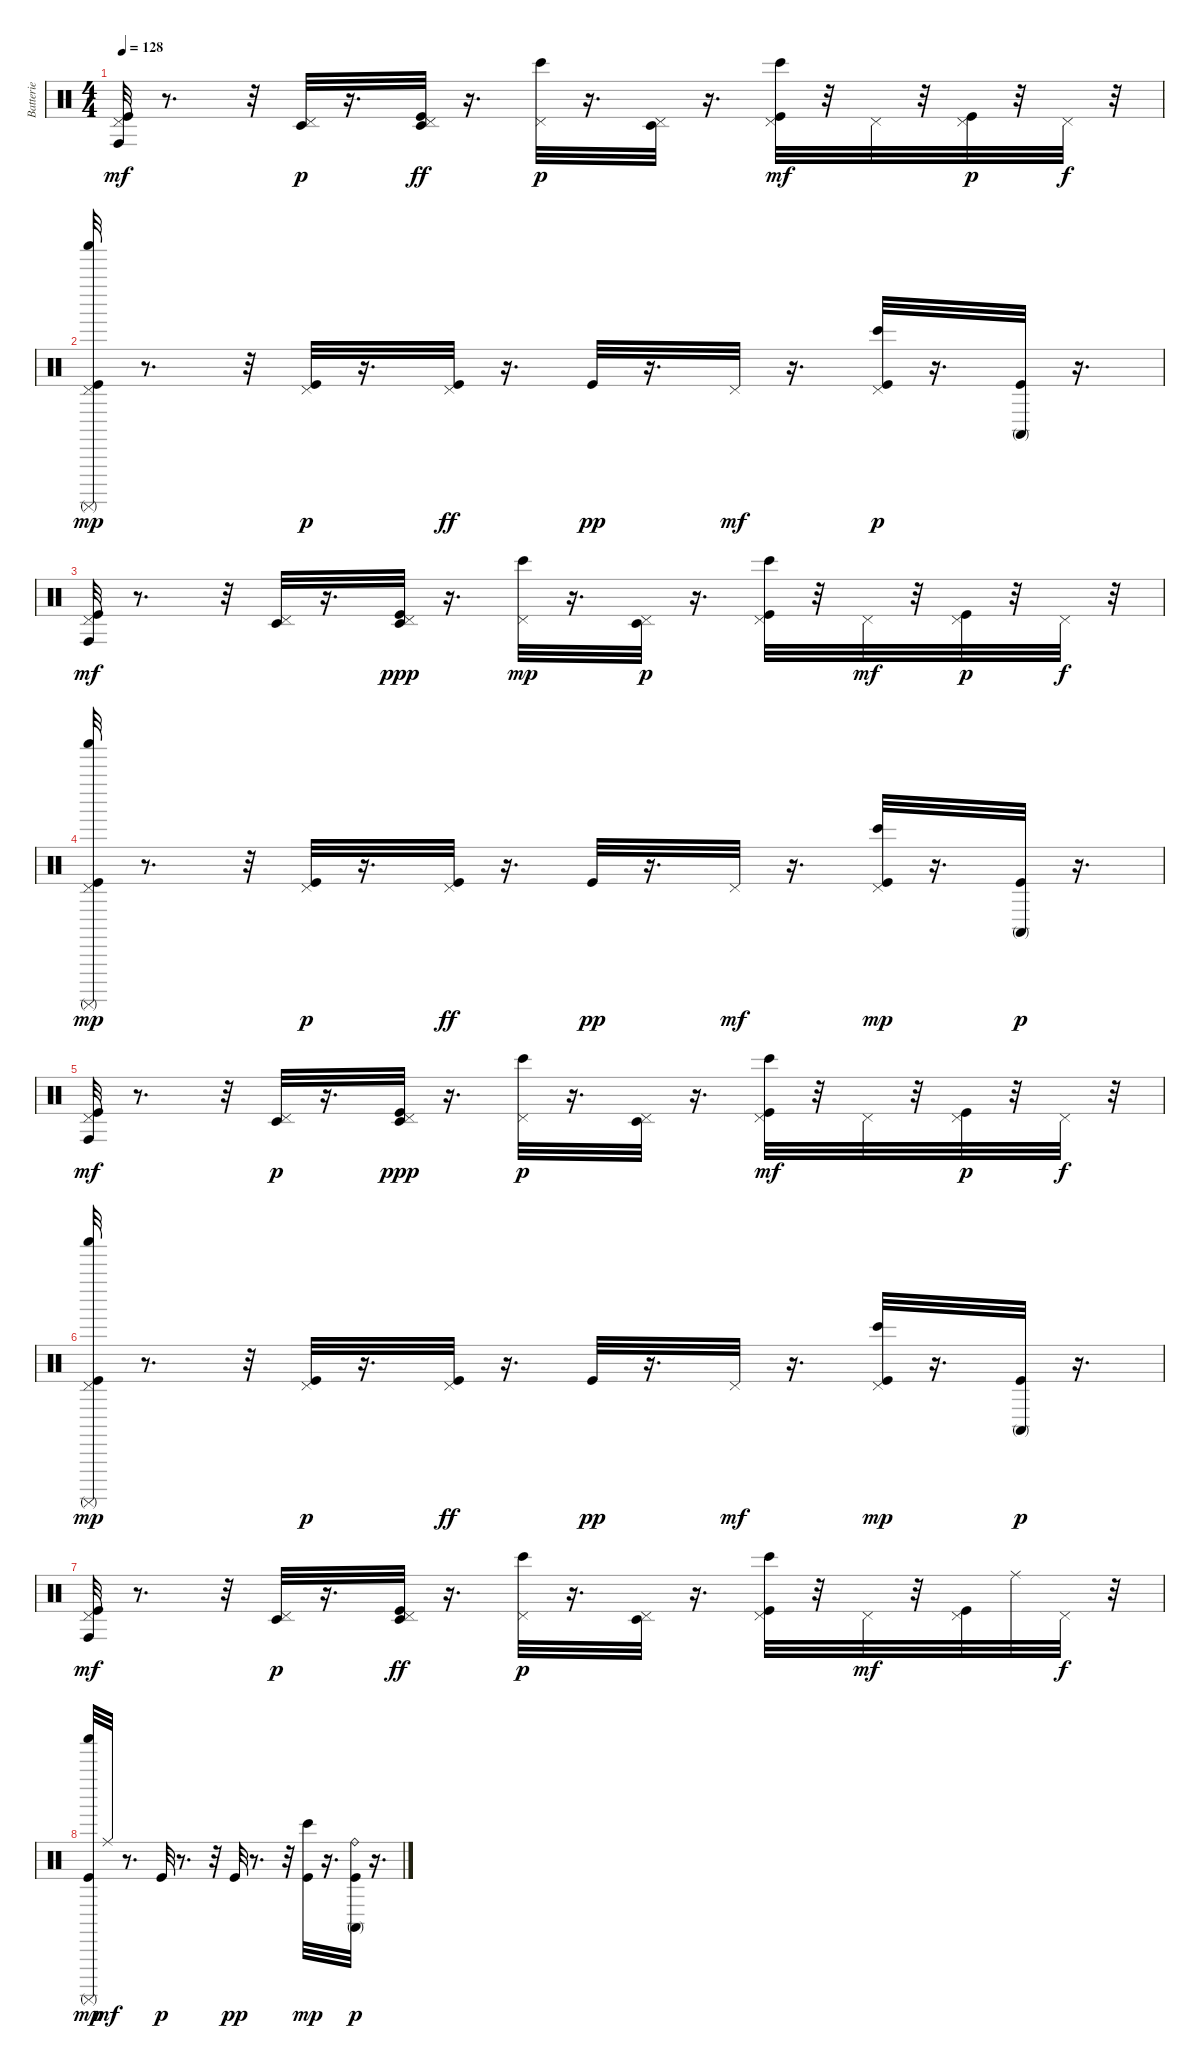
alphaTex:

\track ("Batterie" "Batterie") {instrument percussion}
\staff {score}
\articulation defaults
\ts (4 4)
\tempo 128
\clef neutral
\ks c
("Pedal Hi-Hat (hit)" "Kick (hit)" "Conga high (hit)").32{dy mf} r.8{d} r.32 ("Pedal Hi-Hat (hit)" "Timbale low (hit)").32{dy p} r.16{d} ("Timbale low (hit)" "Kick (hit)" "Pedal Hi-Hat (hit)").32{dy ff} r.16{d} ("Bongo High (hit)" "Pedal Hi-Hat (hit)").32{dy p} r.16{d} ("Timbale low (hit)" "Pedal Hi-Hat (hit)").32 r.16{d} ("Kick (hit)" "Bongo High (hit)" "Pedal Hi-Hat (hit)").32{dy mf} r.32 "Pedal Hi-Hat (hit)".32 r.32 ("Pedal Hi-Hat (hit)" "Kick (hit)").32{dy p} r.32 "Pedal Hi-Hat (hit)".32{dy f} r.32 |
("Shaker (hit)" "Surdo (mute)" "Kick (hit)" "Pedal Hi-Hat (hit)").32{dy mp} r.8{d} r.32 ("Kick (hit)" "Pedal Hi-Hat (hit)").32{dy p} r.16{d} ("Kick (hit)" "Pedal Hi-Hat (hit)").32{dy ff} r.16{d} "Kick (hit)".32{dy pp} r.16{d} "Pedal Hi-Hat (hit)".32{dy mf} r.16{d} ("Bongo High (hit)" "Pedal Hi-Hat (hit)" "Kick (hit)").32{dy p} r.16{d} ("Conga high (mute)" "Kick (hit)").32 r.16{d} |
("Kick (hit)" "Conga high (hit)" "Pedal Hi-Hat (hit)").32{dy mf} r.8{d} r.32 ("Timbale low (hit)" "Pedal Hi-Hat (hit)").32 r.16{d} ("Kick (hit)" "Timbale low (hit)" "Pedal Hi-Hat (hit)").32{dy ppp} r.16{d} ("Pedal Hi-Hat (hit)" "Bongo High (hit)").32{dy mp} r.16{d} ("Pedal Hi-Hat (hit)" "Timbale low (hit)").32{dy p} r.16{d} ("Pedal Hi-Hat (hit)" "Bongo High (hit)" "Kick (hit)").32 r.32 "Pedal Hi-Hat (hit)".32{dy mf} r.32 ("Pedal Hi-Hat (hit)" "Kick (hit)").32{dy p} r.32 "Pedal Hi-Hat (hit)".32{dy f} r.32 |
("Shaker (hit)" "Kick (hit)" "Pedal Hi-Hat (hit)" "Surdo (mute)").32{dy mp} r.8{d} r.32 ("Kick (hit)" "Pedal Hi-Hat (hit)").32{dy p} r.16{d} ("Pedal Hi-Hat (hit)" "Kick (hit)").32{dy ff} r.16{d} "Kick (hit)".32{dy pp} r.16{d} "Pedal Hi-Hat (hit)".32{dy mf} r.16{d} ("Kick (hit)" "Bongo High (hit)" "Pedal Hi-Hat (hit)").32{dy mp} r.16{d} ("Kick (hit)" "Conga high (mute)").32{dy p} r.16{d} |
("Conga high (hit)" "Kick (hit)" "Pedal Hi-Hat (hit)").32{dy mf} r.8{d} r.32 ("Pedal Hi-Hat (hit)" "Timbale low (hit)").32{dy p} r.16{d} ("Kick (hit)" "Pedal Hi-Hat (hit)" "Timbale low (hit)").32{dy ppp} r.16{d} ("Bongo High (hit)" "Pedal Hi-Hat (hit)").32{dy p} r.16{d} ("Pedal Hi-Hat (hit)" "Timbale low (hit)").32 r.16{d} ("Pedal Hi-Hat (hit)" "Kick (hit)" "Bongo High (hit)").32{dy mf} r.32 "Pedal Hi-Hat (hit)".32 r.32 ("Pedal Hi-Hat (hit)" "Kick (hit)").32{dy p} r.32 "Pedal Hi-Hat (hit)".32{dy f} r.32 |
("Surdo (mute)" "Pedal Hi-Hat (hit)" "Kick (hit)" "Shaker (hit)").32{dy mp} r.8{d} r.32 ("Pedal Hi-Hat (hit)" "Kick (hit)").32{dy p} r.16{d} ("Pedal Hi-Hat (hit)" "Kick (hit)").32{dy ff} r.16{d} "Kick (hit)".32{dy pp} r.16{d} "Pedal Hi-Hat (hit)".32{dy mf} r.16{d} ("Kick (hit)" "Pedal Hi-Hat (hit)" "Bongo High (hit)").32{dy mp} r.16{d} ("Kick (hit)" "Conga high (mute)").32{dy p} r.16{d} |
("Pedal Hi-Hat (hit)" "Kick (hit)" "Conga high (hit)").32{dy mf} r.8{d} r.32 ("Pedal Hi-Hat (hit)" "Timbale low (hit)").32{dy p} r.16{d} ("Pedal Hi-Hat (hit)" "Timbale low (hit)" "Kick (hit)").32{dy ff} r.16{d} ("Bongo High (hit)" "Pedal Hi-Hat (hit)").32{dy p} r.16{d} ("Pedal Hi-Hat (hit)" "Timbale low (hit)").32 r.16{d} ("Bongo High (hit)" "Kick (hit)" "Pedal Hi-Hat (hit)").32 r.32 "Pedal Hi-Hat (hit)".32{dy mf} r.32 ("Kick (hit)" "Pedal Hi-Hat (hit)").32 "Ride (middle)".32 "Pedal Hi-Hat (hit)".32{dy f} r.32 |
("Shaker (hit)" "Kick (hit)" "Surdo (mute)").32{dy mp} "Ride (middle)".32{dy mf} r.8{d} "Kick (hit)".32{dy p} r.8{d} r.32 "Kick (hit)".32{dy pp} r.8{d} r.32 ("Kick (hit)" "Bongo High (hit)").32{dy mp} r.16{d} ("Ride (bell)" "Conga high (mute)" "Kick (hit)").32{dy p} r.16{d}
